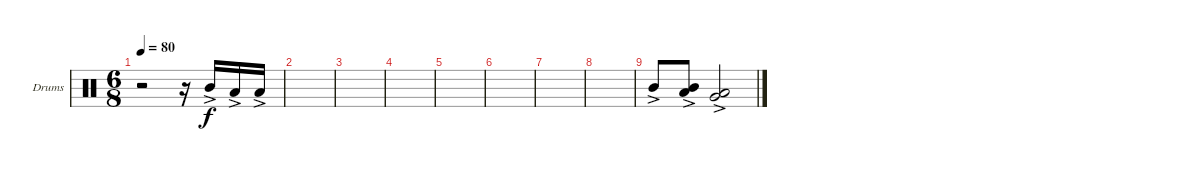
\defaultSystemsLayout 4
\bracketExtendMode groupsimilarinstruments
\firstSystemTrackNameOrientation horizontal
\otherSystemsTrackNameOrientation horizontal
\track ("Drumkit" "Drums") {instrument percussion}
\staff {score}
\articulation defaults
\ts (6 8)
\tempo 80
\clef neutral
\ks c
r.2{dy f} r.16 "Mid Tom (hit)"{ac}.16 "Low Tom (hit)"{ac}.16 "Low Tom (hit)"{ac}.16 |
|
|
|
|
|
|
|
"Mid Tom (hit)"{ac}.8 ("Mid Tom (hit)"{ac} "Low Tom (hit)"{ac}).8 ("Low Tom (hit)"{ac} "Very Low Tom (hit)"{ac}).2
